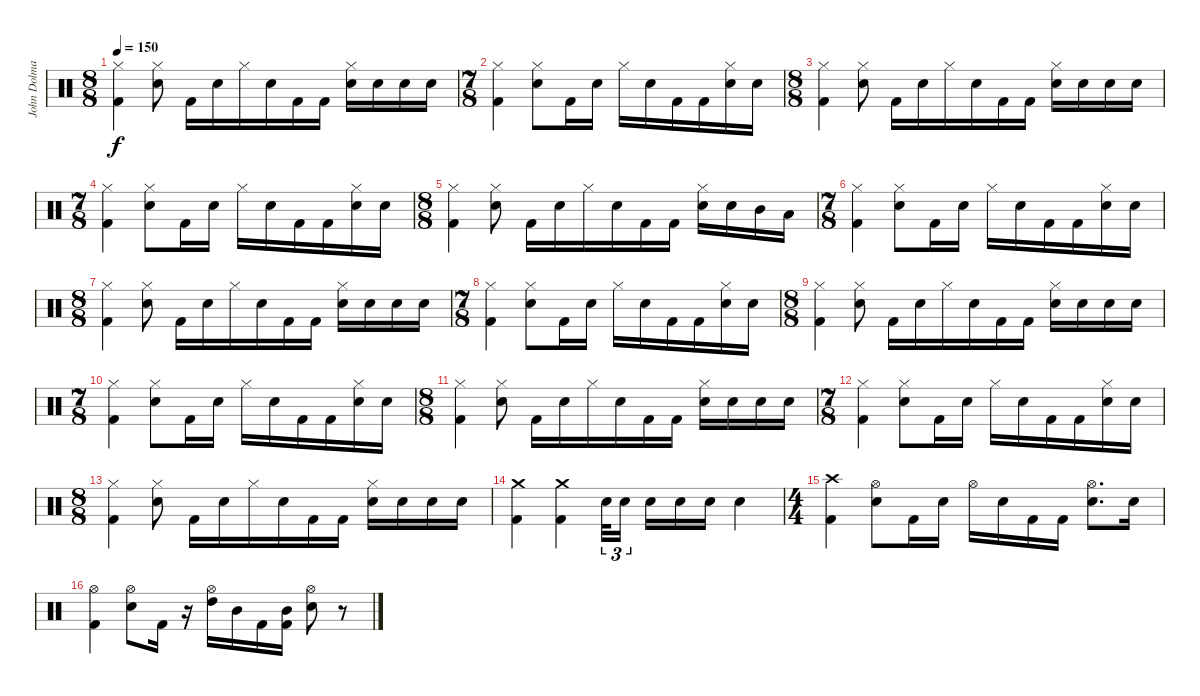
\track ("John Dolmayan" "John Dolma") {instrument percussion}
\staff {score}
\articulation defaults
\ts (8 8)
\tempo 150
\clef neutral
\ks c
("Hi-Hat (closed)" "Kick (hit) 2").4{dy f} ("Hi-Hat (closed)" "Electric Snare (hit)").8 "Kick (hit) 2".16 "Electric Snare (hit)".16 "Hi-Hat (closed)".16 "Electric Snare (hit)".16 "Kick (hit) 2".16 "Kick (hit) 2".16 ("Hi-Hat (closed)" "Electric Snare (hit)").16 "Electric Snare (hit)".16 "Electric Snare (hit)".16 "Electric Snare (hit)".16 |
\ts (7 8)
("Hi-Hat (closed)" "Kick (hit) 2").4 ("Hi-Hat (closed)" "Electric Snare (hit)").8 "Kick (hit) 2".16 "Electric Snare (hit)".16 "Hi-Hat (closed)".16 "Electric Snare (hit)".16 "Kick (hit) 2".16 "Kick (hit) 2".16 ("Hi-Hat (closed)" "Electric Snare (hit)").16 "Electric Snare (hit)".16 |
\ts (8 8)
("Hi-Hat (closed)" "Kick (hit) 2").4 ("Hi-Hat (closed)" "Electric Snare (hit)").8 "Kick (hit) 2".16 "Electric Snare (hit)".16 "Hi-Hat (closed)".16 "Electric Snare (hit)".16 "Kick (hit) 2".16 "Kick (hit) 2".16 ("Hi-Hat (closed)" "Electric Snare (hit)").16 "Electric Snare (hit)".16 "Electric Snare (hit)".16 "Electric Snare (hit)".16 |
\ts (7 8)
("Hi-Hat (closed)" "Kick (hit) 2").4 ("Hi-Hat (closed)" "Electric Snare (hit)").8 "Kick (hit) 2".16 "Electric Snare (hit)".16 "Hi-Hat (closed)".16 "Electric Snare (hit)".16 "Kick (hit) 2".16 "Kick (hit) 2".16 ("Hi-Hat (closed)" "Electric Snare (hit)").16 "Electric Snare (hit)".16 |
\ts (8 8)
("Hi-Hat (closed)" "Kick (hit) 2").4 ("Hi-Hat (closed)" "Electric Snare (hit)").8 "Kick (hit) 2".16 "Electric Snare (hit)".16 "Hi-Hat (closed)".16 "Electric Snare (hit)".16 "Kick (hit) 2".16 "Kick (hit) 2".16 ("Hi-Hat (closed)" "Electric Snare (hit)").16 "Electric Snare (hit)".16 "Mid Tom (hit)".16 "Low Tom (hit)".16 |
\ts (7 8)
("Hi-Hat (closed)" "Kick (hit) 2").4 ("Hi-Hat (closed)" "Electric Snare (hit)").8 "Kick (hit) 2".16 "Electric Snare (hit)".16 "Hi-Hat (closed)".16 "Electric Snare (hit)".16 "Kick (hit) 2".16 "Kick (hit) 2".16 ("Hi-Hat (closed)" "Electric Snare (hit)").16 "Electric Snare (hit)".16 |
\ts (8 8)
("Hi-Hat (closed)" "Kick (hit) 2").4 ("Hi-Hat (closed)" "Electric Snare (hit)").8 "Kick (hit) 2".16 "Electric Snare (hit)".16 "Hi-Hat (closed)".16 "Electric Snare (hit)".16 "Kick (hit) 2".16 "Kick (hit) 2".16 ("Hi-Hat (closed)" "Electric Snare (hit)").16 "Electric Snare (hit)".16 "Electric Snare (hit)".16 "Electric Snare (hit)".16 |
\ts (7 8)
("Hi-Hat (closed)" "Kick (hit) 2").4 ("Hi-Hat (closed)" "Electric Snare (hit)").8 "Kick (hit) 2".16 "Electric Snare (hit)".16 "Hi-Hat (closed)".16 "Electric Snare (hit)".16 "Kick (hit) 2".16 "Kick (hit) 2".16 ("Hi-Hat (closed)" "Electric Snare (hit)").16 "Electric Snare (hit)".16 |
\ts (8 8)
("Hi-Hat (closed)" "Kick (hit) 2").4 ("Hi-Hat (closed)" "Electric Snare (hit)").8 "Kick (hit) 2".16 "Electric Snare (hit)".16 "Hi-Hat (closed)".16 "Electric Snare (hit)".16 "Kick (hit) 2".16 "Kick (hit) 2".16 ("Hi-Hat (closed)" "Electric Snare (hit)").16 "Electric Snare (hit)".16 "Electric Snare (hit)".16 "Electric Snare (hit)".16 |
\ts (7 8)
("Hi-Hat (closed)" "Kick (hit) 2").4 ("Hi-Hat (closed)" "Electric Snare (hit)").8 "Kick (hit) 2".16 "Electric Snare (hit)".16 "Hi-Hat (closed)".16 "Electric Snare (hit)".16 "Kick (hit) 2".16 "Kick (hit) 2".16 ("Hi-Hat (closed)" "Electric Snare (hit)").16 "Electric Snare (hit)".16 |
\ts (8 8)
("Hi-Hat (closed)" "Kick (hit) 2").4 ("Hi-Hat (closed)" "Electric Snare (hit)").8 "Kick (hit) 2".16 "Electric Snare (hit)".16 "Hi-Hat (closed)".16 "Electric Snare (hit)".16 "Kick (hit) 2".16 "Kick (hit) 2".16 ("Hi-Hat (closed)" "Electric Snare (hit)").16 "Electric Snare (hit)".16 "Electric Snare (hit)".16 "Electric Snare (hit)".16 |
\ts (7 8)
("Hi-Hat (closed)" "Kick (hit) 2").4 ("Hi-Hat (closed)" "Electric Snare (hit)").8 "Kick (hit) 2".16 "Electric Snare (hit)".16 "Hi-Hat (closed)".16 "Electric Snare (hit)".16 "Kick (hit) 2".16 "Kick (hit) 2".16 ("Hi-Hat (closed)" "Electric Snare (hit)").16 "Electric Snare (hit)".16 |
\ts (8 8)
("Hi-Hat (closed)" "Kick (hit) 2").4 ("Hi-Hat (closed)" "Electric Snare (hit)").8 "Kick (hit) 2".16 "Electric Snare (hit)".16 "Hi-Hat (closed)".16 "Electric Snare (hit)".16 "Kick (hit) 2".16 "Kick (hit) 2".16 ("Hi-Hat (closed)" "Electric Snare (hit)").16 "Electric Snare (hit)".16 "Electric Snare (hit)".16 "Electric Snare (hit)".16 |
("Crash medium (hit)" "Kick (hit) 2").4 ("Crash medium (hit)" "Kick (hit) 2").4 "Electric Snare (hit)".32{tu (3 2)} "Electric Snare (hit)".16{tu (3 2) beam splitsecondary} "Electric Snare (hit)".16 "Electric Snare (hit)".16 "Electric Snare (hit)".16 "Electric Snare (hit)".4 |
\ts (4 4)
("Crash high (hit)" "Kick (hit) 2").4 ("Hi-Hat (open)" "Electric Snare (hit)").8 "Kick (hit) 2".16 "Electric Snare (hit)".16 "Hi-Hat (open)".16 "Electric Snare (hit)".16 "Kick (hit) 2".16 "Kick (hit) 2".16 ("Hi-Hat (open)" "Electric Snare (hit)").8{d} "Electric Snare (hit)".16 |
("Hi-Hat (open)" "Kick (hit) 2").4 ("Hi-Hat (open)" "Electric Snare (hit)").8 "Kick (hit) 2".16 r.16 ("Hi-Hat (open)" "High Tom (hit)").16 "Mid Tom (hit)".16 "Kick (hit) 2".16 ("Mid Tom (hit)" "Kick (hit) 2").16 ("Hi-Hat (open)" "Electric Snare (hit)").8 r.8
